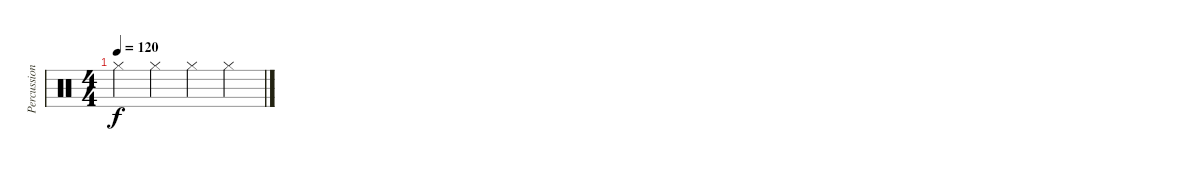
\track ("Percussion" "Percussion") {instrument percussion}
\staff {score}
\articulation defaults
\ts (4 4)
\tempo 120
\clef neutral
\ks c "Hi-Hat (closed)".4{dy f} "Hi-Hat (closed)".4 "Hi-Hat (closed)".4 "Hi-Hat (closed)".4
